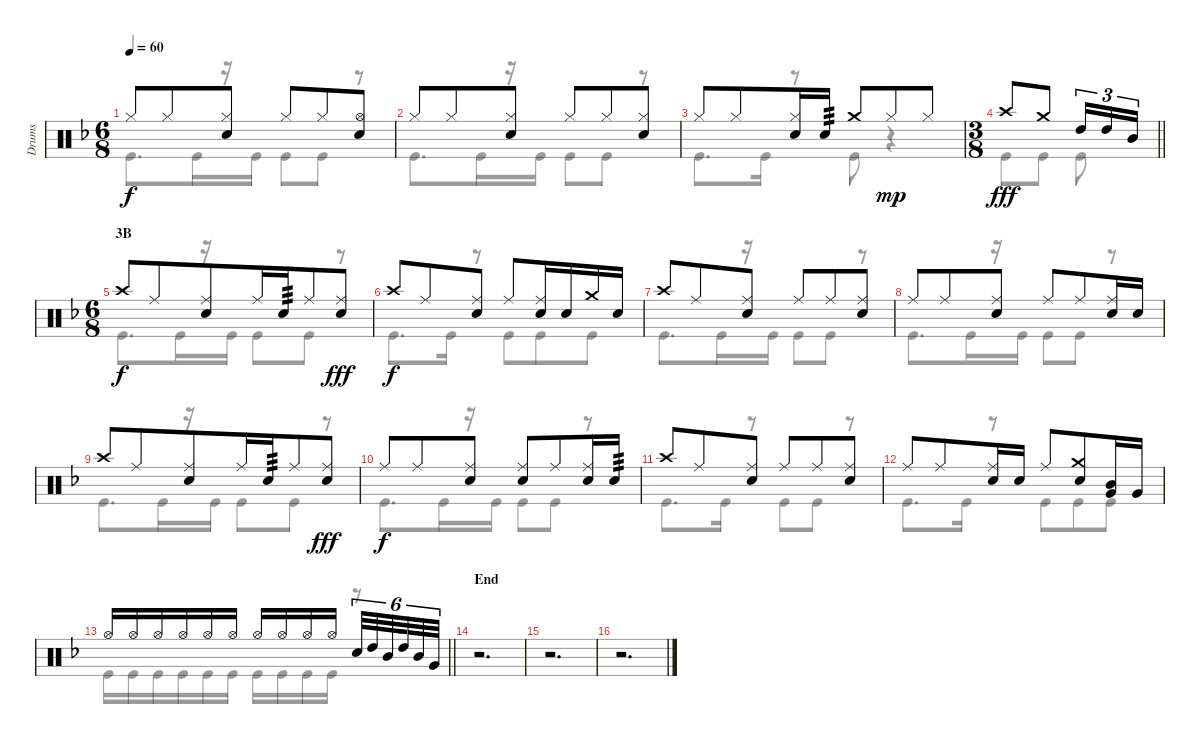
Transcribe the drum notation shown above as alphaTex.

\track ("Drums" "Drums") {instrument percussion}
\staff {score}
\articulation defaults
\voice
\ts (6 8)
\tempo 60
\clef neutral
\ks f "Hi-Hat (closed)".8{dy f} "Hi-Hat (closed)".8
("Hi-Hat (closed)" "Snare (hit) 2").8 "Hi-Hat (closed)".8 "Hi-Hat (closed)".8 ("Hi-Hat (open)" "Snare (hit) 2").8 |
"Hi-Hat (closed)".8 "Hi-Hat (closed)".8 ("Hi-Hat (closed)" "Snare (hit) 2").8 "Hi-Hat (closed)".8 "Hi-Hat (closed)".8 ("Hi-Hat (closed)" "Snare (hit) 2").8 |
"Hi-Hat (closed)".8 "Hi-Hat (closed)".8 ("Hi-Hat (closed)" "Snare (hit) 2").16 "Snare (hit) 2".16{tp 3} "Crash medium (hit)".8 "Hi-Hat (closed)".8{dy mp} "Hi-Hat (closed)".8 |
\ts (3 8)
\barLineRight lightlight "Crash high (hit)".8{dy fff beam merge} "Crash medium (hit)".8 "High Tom (hit)".16{tu (3 2)} "High Tom (hit)".16{tu (3 2)} "Mid Tom (hit)".16{tu (3 2)}
|
\ts (6 8)
\section ("" "3B")
"Crash high (hit)".8{dy f} "Ride (middle)".8 ("Ride (middle)" "Snare (hit) 2").8{beam merge} "Ride (middle)".16 "Snare (hit) 2".16{tp 3} "Ride (middle)".8 ("Ride (middle)" "Snare (hit) 2").8{dy fff} |
"Crash high (hit)".8{dy f} "Ride (middle)".8 ("Ride (middle)" "Snare (hit) 2").8 "Ride (middle)".8 ("Ride (middle)" "Snare (hit) 2").16 "Snare (hit) 2".16 "Crash medium (hit)".16 "Snare (hit) 2".16 |
"Crash high (hit)".8 "Ride (middle)".8 ("Ride (middle)" "Snare (hit) 2").8 "Ride (middle)".8 "Ride (middle)".8 ("Ride (middle)" "Snare (hit) 2").8 |
"Ride (middle)".8 "Ride (middle)".8 ("Ride (middle)" "Snare (hit) 2").8 "Ride (middle)".8 "Ride (middle)".8 ("Ride (middle)" "Snare (hit) 2").16 "Snare (hit) 2".16 |
"Crash high (hit)".8 "Ride (middle)".8 ("Ride (middle)" "Snare (hit) 2").8{beam merge} "Ride (middle)".16 "Snare (hit) 2".16{tp 3} "Ride (middle)".8 ("Ride (middle)" "Snare (hit) 2").8{dy fff} |
"Ride (middle)".8{dy f} "Ride (middle)".8 ("Ride (middle)" "Snare (hit) 2").8 ("Ride (middle)" "Snare (hit) 2").8 "Ride (middle)".8 ("Ride (middle)" "Snare (hit) 2").16 "Snare (hit) 2".16{tp 3} |
"Crash high (hit)".8 "Ride (middle)".8 ("Ride (middle)" "Snare (hit) 2").8 "Ride (middle)".8 "Ride (middle)".8 ("Ride (middle)" "Snare (hit) 2").8 |
"Ride (middle)".8 "Ride (middle)".8 ("Ride (middle)" "Snare (hit) 2").16 "Snare (hit) 2".16 "Ride (middle)".8 ("Crash medium (hit)" "Snare (hit) 2").8 ("Very Low Tom (hit)" "Mid Tom (hit)").16 "Very Low Tom (hit)".16 |
\barLineRight lightlight "Hi-Hat (open)".16 "Hi-Hat (open)".16 "Hi-Hat (open)".16 "Hi-Hat (open)".16 "Hi-Hat (open)".16 "Hi-Hat (open)".16 "Hi-Hat (open)".16 "Hi-Hat (open)".16 "Hi-Hat (open)".16 "Hi-Hat (open)".16{beam splitsecondary} "Snare (hit) 2".32{tu (6 4)} "High Tom (hit)".32{tu (6 4)} "Mid Tom (hit)".32{tu (6 4) beam splitsecondary} "High Tom (hit)".32{tu (6 4)} "Mid Tom (hit)".32{tu (6 4)} "Very Low Tom (hit)".32{tu (6 4)}
|
\section ("" "End")
r.2{d} |
r.2{d} |
r.2{d}
\voice
\clef neutral
\ottava regular
\simile none
\ks f "Kick (hit)".8{d dy f} "Kick (hit)".16
r.16 "Kick (hit)".16 "Kick (hit)".8 "Kick (hit)".8 r.8 |
"Kick (hit)".8{d} "Kick (hit)".16 r.16 "Kick (hit)".16 "Kick (hit)".8 "Kick (hit)".8 r.8 |
"Kick (hit)".8{d} "Kick (hit)".16 r.8 "Kick (hit)".8 r.4 |
\barLineRight lightlight "Kick (hit)".8{dy fff} "Kick (hit)".8{beam split} "Kick (hit)".8
|
"Kick (hit)".8{d dy f} "Kick (hit)".16 r.16 "Kick (hit)".16 "Kick (hit)".8 "Kick (hit)".8 r.8 |
"Kick (hit)".8{d} "Kick (hit)".16 r.8 "Kick (hit)".8 "Kick (hit)".8 "Kick (hit)".8 |
"Kick (hit)".8{d} "Kick (hit)".16 r.16 "Kick (hit)".16 "Kick (hit)".8 "Kick (hit)".8 r.8 |
"Kick (hit)".8{d} "Kick (hit)".16 r.16 "Kick (hit)".16 "Kick (hit)".8 "Kick (hit)".8 r.8 |
"Kick (hit)".8{d} "Kick (hit)".16 r.16 "Kick (hit)".16 "Kick (hit)".8 "Kick (hit)".8 r.8 |
"Kick (hit)".8{d} "Kick (hit)".16 r.16 "Kick (hit)".16 "Kick (hit)".8 "Kick (hit)".8 r.8 |
"Kick (hit)".8{d} "Kick (hit)".16 r.8 "Kick (hit)".8 "Kick (hit)".8 r.8 |
"Kick (hit)".8{d} "Kick (hit)".16 r.8 "Kick (hit)".8 "Kick (hit)".8 "Kick (hit)".8 |
\barLineRight lightlight "Kick (hit)".16 "Kick (hit)".16 "Kick (hit)".16 "Kick (hit)".16 "Kick (hit)".16 "Kick (hit)".16 "Kick (hit)".16 "Kick (hit)".16 "Kick (hit)".16 "Kick (hit)".16
r.8 |
r.2{d} |
r.2{d} |
r.2{d}
